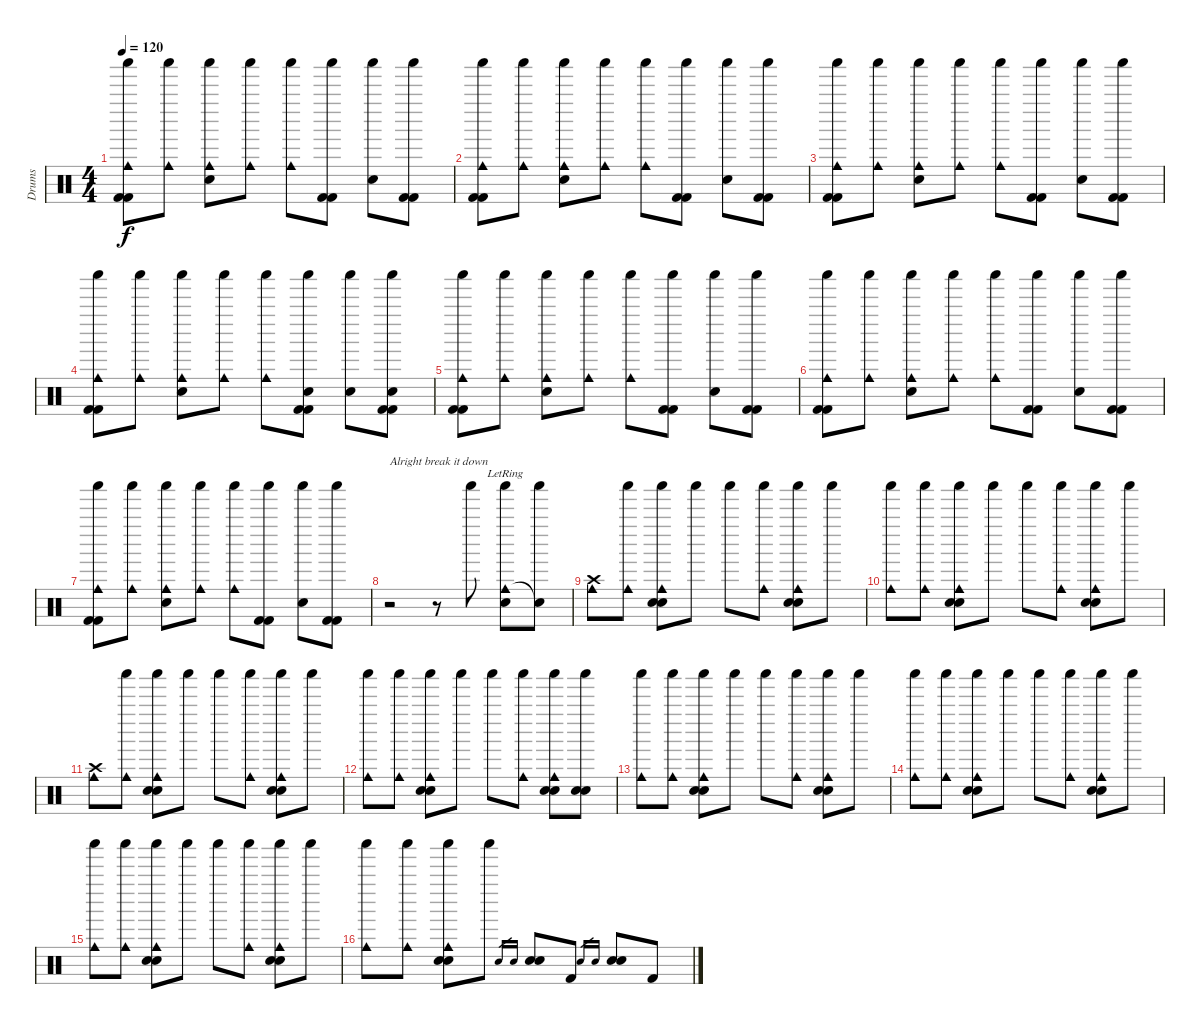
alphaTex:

\track ("Drums" "Drums") {instrument percussion}
\staff {score}
\articulation defaults
\ts (4 4)
\tempo 120
\clef neutral
\ks c
("Shaker (hit)" "Cowbell medium (hit)" "Kick (hit) 2" "Kick (hit) 2").8{dy f} ("Shaker (hit)" "Cowbell medium (hit)").8 ("Shaker (hit)" "Cowbell medium (hit)" "Electric Snare (hit)").8 ("Shaker (hit)" "Cowbell medium (hit)").8 ("Shaker (hit)" "Cowbell medium (hit)").8 ("Shaker (hit)" "Kick (hit) 2" "Kick (hit) 2").8 ("Shaker (hit)" "Electric Snare (hit)").8 ("Shaker (hit)" "Kick (hit) 2" "Kick (hit) 2").8 |
("Shaker (hit)" "Cowbell medium (hit)" "Kick (hit) 2" "Kick (hit) 2").8 ("Shaker (hit)" "Cowbell medium (hit)").8 ("Shaker (hit)" "Cowbell medium (hit)" "Electric Snare (hit)").8 ("Shaker (hit)" "Cowbell medium (hit)").8 ("Shaker (hit)" "Cowbell medium (hit)").8 ("Shaker (hit)" "Kick (hit) 2" "Kick (hit) 2").8 ("Shaker (hit)" "Electric Snare (hit)").8 ("Shaker (hit)" "Kick (hit) 2" "Kick (hit) 2").8 |
("Shaker (hit)" "Cowbell medium (hit)" "Kick (hit) 2" "Kick (hit) 2").8 ("Shaker (hit)" "Cowbell medium (hit)").8 ("Shaker (hit)" "Cowbell medium (hit)" "Electric Snare (hit)").8 ("Shaker (hit)" "Cowbell medium (hit)").8 ("Shaker (hit)" "Cowbell medium (hit)").8 ("Shaker (hit)" "Kick (hit) 2" "Kick (hit) 2").8 ("Shaker (hit)" "Electric Snare (hit)").8 ("Shaker (hit)" "Kick (hit) 2" "Kick (hit) 2").8 |
("Shaker (hit)" "Cowbell medium (hit)" "Kick (hit) 2" "Kick (hit) 2").8 ("Shaker (hit)" "Cowbell medium (hit)").8 ("Shaker (hit)" "Cowbell medium (hit)" "Electric Snare (hit)").8 ("Shaker (hit)" "Cowbell medium (hit)").8 ("Shaker (hit)" "Cowbell medium (hit)").8 ("Shaker (hit)" "Electric Snare (hit)" "Kick (hit) 2" "Kick (hit) 2").8 ("Shaker (hit)" "Electric Snare (hit)").8 ("Shaker (hit)" "Electric Snare (hit)" "Kick (hit) 2" "Kick (hit) 2").8 |
("Shaker (hit)" "Cowbell medium (hit)" "Kick (hit) 2" "Kick (hit) 2").8 ("Shaker (hit)" "Cowbell medium (hit)").8 ("Shaker (hit)" "Cowbell medium (hit)" "Electric Snare (hit)").8 ("Shaker (hit)" "Cowbell medium (hit)").8 ("Shaker (hit)" "Cowbell medium (hit)").8 ("Shaker (hit)" "Kick (hit) 2" "Kick (hit) 2").8 ("Shaker (hit)" "Electric Snare (hit)").8 ("Shaker (hit)" "Kick (hit) 2" "Kick (hit) 2").8 |
("Shaker (hit)" "Cowbell medium (hit)" "Kick (hit) 2" "Kick (hit) 2").8 ("Shaker (hit)" "Cowbell medium (hit)").8 ("Shaker (hit)" "Cowbell medium (hit)" "Electric Snare (hit)").8 ("Shaker (hit)" "Cowbell medium (hit)").8 ("Shaker (hit)" "Cowbell medium (hit)").8 ("Shaker (hit)" "Kick (hit) 2" "Kick (hit) 2").8 ("Shaker (hit)" "Electric Snare (hit)").8 ("Shaker (hit)" "Kick (hit) 2" "Kick (hit) 2").8 |
("Shaker (hit)" "Cowbell medium (hit)" "Kick (hit) 2" "Kick (hit) 2").8 ("Shaker (hit)" "Cowbell medium (hit)").8 ("Shaker (hit)" "Cowbell medium (hit)" "Electric Snare (hit)").8 ("Shaker (hit)" "Cowbell medium (hit)").8 ("Shaker (hit)" "Cowbell medium (hit)").8 ("Shaker (hit)" "Kick (hit) 2" "Kick (hit) 2").8 ("Shaker (hit)" "Electric Snare (hit)").8 ("Shaker (hit)" "Kick (hit) 2" "Kick (hit) 2").8 |
r.2{txt "Alright break it down"} r.8 "Shaker (hit)".8 ("Shaker (hit)" "Cowbell medium (hit)"{lr} "Electric Snare (hit)").8 ("Shaker (hit)" "Snare (hit)"{t}).8 |
("Crash high (hit)" "Cowbell medium (hit)").8 ("Shaker (hit)" "Cowbell medium (hit)").8 ("Shaker (hit)" "Cowbell medium (hit)" "Hand Clap (hit)" "Hand Clap (hit)").8 "Shaker (hit)".8 "Shaker (hit)".8 ("Shaker (hit)" "Cowbell medium (hit)").8 ("Shaker (hit)" "Cowbell medium (hit)" "Hand Clap (hit)" "Hand Clap (hit)").8 "Shaker (hit)".8 |
("Shaker (hit)" "Cowbell medium (hit)").8 ("Shaker (hit)" "Cowbell medium (hit)").8 ("Shaker (hit)" "Cowbell medium (hit)" "Hand Clap (hit)" "Hand Clap (hit)").8 "Shaker (hit)".8 "Shaker (hit)".8 ("Shaker (hit)" "Cowbell medium (hit)").8 ("Shaker (hit)" "Cowbell medium (hit)" "Hand Clap (hit)" "Hand Clap (hit)").8 "Shaker (hit)".8 |
("Crash high (hit)" "Cowbell medium (hit)").8 ("Shaker (hit)" "Cowbell medium (hit)").8 ("Shaker (hit)" "Cowbell medium (hit)" "Hand Clap (hit)" "Hand Clap (hit)").8 "Shaker (hit)".8 "Shaker (hit)".8 ("Shaker (hit)" "Cowbell medium (hit)").8 ("Shaker (hit)" "Cowbell medium (hit)" "Hand Clap (hit)" "Hand Clap (hit)").8 "Shaker (hit)".8 |
("Shaker (hit)" "Cowbell medium (hit)").8 ("Shaker (hit)" "Cowbell medium (hit)").8 ("Shaker (hit)" "Cowbell medium (hit)" "Hand Clap (hit)" "Hand Clap (hit)").8 "Shaker (hit)".8 "Shaker (hit)".8 ("Shaker (hit)" "Cowbell medium (hit)").8 ("Shaker (hit)" "Cowbell medium (hit)" "Hand Clap (hit)" "Hand Clap (hit)").8 ("Shaker (hit)" "Hand Clap (hit)" "Hand Clap (hit)").8 |
("Shaker (hit)" "Cowbell medium (hit)").8 ("Shaker (hit)" "Cowbell medium (hit)").8 ("Shaker (hit)" "Cowbell medium (hit)" "Hand Clap (hit)" "Hand Clap (hit)").8 "Shaker (hit)".8 "Shaker (hit)".8 ("Shaker (hit)" "Cowbell medium (hit)").8 ("Shaker (hit)" "Cowbell medium (hit)" "Hand Clap (hit)" "Hand Clap (hit)").8 "Shaker (hit)".8 |
("Shaker (hit)" "Cowbell medium (hit)").8 ("Shaker (hit)" "Cowbell medium (hit)").8 ("Shaker (hit)" "Cowbell medium (hit)" "Hand Clap (hit)" "Hand Clap (hit)").8 "Shaker (hit)".8 "Shaker (hit)".8 ("Shaker (hit)" "Cowbell medium (hit)").8 ("Shaker (hit)" "Cowbell medium (hit)" "Hand Clap (hit)" "Hand Clap (hit)").8 "Shaker (hit)".8 |
("Shaker (hit)" "Cowbell medium (hit)").8 ("Shaker (hit)" "Cowbell medium (hit)").8 ("Shaker (hit)" "Cowbell medium (hit)" "Hand Clap (hit)" "Hand Clap (hit)").8 "Shaker (hit)".8 "Shaker (hit)".8 ("Shaker (hit)" "Cowbell medium (hit)").8 ("Shaker (hit)" "Cowbell medium (hit)" "Hand Clap (hit)" "Hand Clap (hit)").8 "Shaker (hit)".8 |
("Shaker (hit)" "Cowbell medium (hit)").8 ("Shaker (hit)" "Cowbell medium (hit)").8 ("Shaker (hit)" "Cowbell medium (hit)" "Hand Clap (hit)" "Hand Clap (hit)").8 "Shaker (hit)".8 "Electric Snare (hit)".16{gr} "Electric Snare (hit)".16{gr} ("Electric Snare (hit)" "Electric Snare (hit)").8 "Kick (hit) 2".8 "Electric Snare (hit)".16{gr} "Electric Snare (hit)".16{gr} ("Electric Snare (hit)" "Electric Snare (hit)").8 "Kick (hit) 2".8
